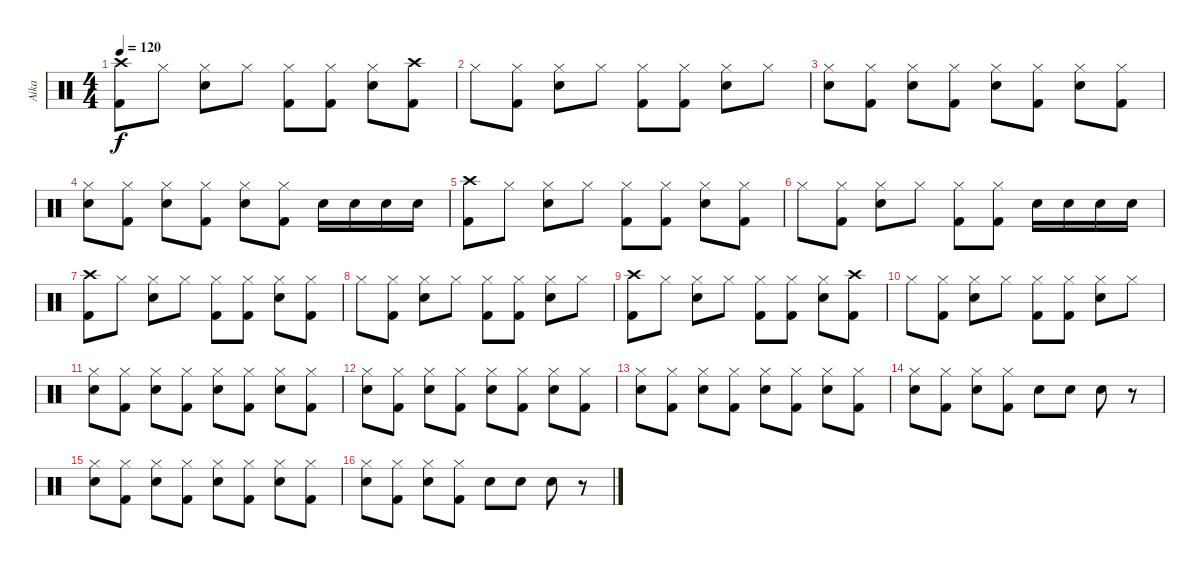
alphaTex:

\track ("Aika" "Aika") {instrument percussion}
\staff {score}
\articulation defaults
\ts (4 4)
\tempo 120
\clef neutral
\ks c
("Crash high (hit)" "Kick (hit) 2").8{dy f} "Hi-Hat (closed)".8 ("Hi-Hat (closed)" "Snare (hit) 2").8 "Hi-Hat (closed)".8 ("Hi-Hat (closed)" "Kick (hit) 2").8 ("Hi-Hat (closed)" "Kick (hit) 2").8 ("Hi-Hat (closed)" "Snare (hit) 2").8 ("Crash high (hit)" "Kick (hit) 2").8 |
"Hi-Hat (closed)".8 ("Hi-Hat (closed)" "Kick (hit) 2").8 ("Hi-Hat (closed)" "Snare (hit) 2").8 "Hi-Hat (closed)".8 ("Hi-Hat (closed)" "Kick (hit) 2").8 ("Hi-Hat (closed)" "Kick (hit) 2").8 ("Hi-Hat (closed)" "Snare (hit) 2").8 "Hi-Hat (closed)".8 |
("Hi-Hat (closed)" "Snare (hit) 2").8 ("Hi-Hat (closed)" "Kick (hit) 2").8 ("Hi-Hat (closed)" "Snare (hit) 2").8 ("Hi-Hat (closed)" "Kick (hit) 2").8 ("Hi-Hat (closed)" "Snare (hit) 2").8 ("Hi-Hat (closed)" "Kick (hit) 2").8 ("Hi-Hat (closed)" "Snare (hit) 2").8 ("Hi-Hat (closed)" "Kick (hit) 2").8 |
("Hi-Hat (closed)" "Snare (hit) 2").8 ("Hi-Hat (closed)" "Kick (hit) 2").8 ("Hi-Hat (closed)" "Snare (hit) 2").8 ("Hi-Hat (closed)" "Kick (hit) 2").8 ("Hi-Hat (closed)" "Snare (hit) 2").8 ("Hi-Hat (closed)" "Kick (hit) 2").8 "Snare (hit) 2".16 "Snare (hit) 2".16 "Snare (hit) 2".16 "Snare (hit) 2".16 |
("Crash high (hit)" "Kick (hit) 2").8 "Hi-Hat (closed)".8 ("Hi-Hat (closed)" "Snare (hit) 2").8 "Hi-Hat (closed)".8 ("Hi-Hat (closed)" "Kick (hit) 2").8 ("Hi-Hat (closed)" "Kick (hit) 2").8 ("Hi-Hat (closed)" "Snare (hit) 2").8 ("Hi-Hat (closed)" "Kick (hit) 2").8 |
"Hi-Hat (closed)".8 ("Hi-Hat (closed)" "Kick (hit) 2").8 ("Hi-Hat (closed)" "Snare (hit) 2").8 "Hi-Hat (closed)".8 ("Hi-Hat (closed)" "Kick (hit) 2").8 ("Hi-Hat (closed)" "Kick (hit) 2").8 "Snare (hit) 2".16 "Snare (hit) 2".16 "Snare (hit) 2".16 "Snare (hit) 2".16 |
("Crash high (hit)" "Kick (hit) 2").8 "Hi-Hat (closed)".8 ("Hi-Hat (closed)" "Snare (hit) 2").8 "Hi-Hat (closed)".8 ("Hi-Hat (closed)" "Kick (hit) 2").8 ("Hi-Hat (closed)" "Kick (hit) 2").8 ("Hi-Hat (closed)" "Snare (hit) 2").8 ("Hi-Hat (closed)" "Kick (hit) 2").8 |
"Hi-Hat (closed)".8 ("Hi-Hat (closed)" "Kick (hit) 2").8 ("Hi-Hat (closed)" "Snare (hit) 2").8 "Hi-Hat (closed)".8 ("Hi-Hat (closed)" "Kick (hit) 2").8 ("Hi-Hat (closed)" "Kick (hit) 2").8 ("Hi-Hat (closed)" "Snare (hit) 2").8 "Hi-Hat (closed)".8 |
("Crash high (hit)" "Kick (hit) 2").8 "Hi-Hat (closed)".8 ("Hi-Hat (closed)" "Snare (hit) 2").8 "Hi-Hat (closed)".8 ("Hi-Hat (closed)" "Kick (hit) 2").8 ("Hi-Hat (closed)" "Kick (hit) 2").8 ("Hi-Hat (closed)" "Snare (hit) 2").8 ("Crash high (hit)" "Kick (hit) 2").8 |
"Hi-Hat (closed)".8 ("Hi-Hat (closed)" "Kick (hit) 2").8 ("Hi-Hat (closed)" "Snare (hit) 2").8 "Hi-Hat (closed)".8 ("Hi-Hat (closed)" "Kick (hit) 2").8 ("Hi-Hat (closed)" "Kick (hit) 2").8 ("Hi-Hat (closed)" "Snare (hit) 2").8 "Hi-Hat (closed)".8 |
("Hi-Hat (closed)" "Snare (hit) 2").8 ("Hi-Hat (closed)" "Kick (hit) 2").8 ("Hi-Hat (closed)" "Snare (hit) 2").8 ("Hi-Hat (closed)" "Kick (hit) 2").8 ("Hi-Hat (closed)" "Snare (hit) 2").8 ("Hi-Hat (closed)" "Kick (hit) 2").8 ("Hi-Hat (closed)" "Snare (hit) 2").8 ("Hi-Hat (closed)" "Kick (hit) 2").8 |
("Hi-Hat (closed)" "Snare (hit) 2").8 ("Hi-Hat (closed)" "Kick (hit) 2").8 ("Hi-Hat (closed)" "Snare (hit) 2").8 ("Hi-Hat (closed)" "Kick (hit) 2").8 ("Hi-Hat (closed)" "Snare (hit) 2").8 ("Hi-Hat (closed)" "Kick (hit) 2").8 ("Hi-Hat (closed)" "Snare (hit) 2").8 ("Hi-Hat (closed)" "Kick (hit) 2").8 |
("Hi-Hat (closed)" "Snare (hit) 2").8 ("Hi-Hat (closed)" "Kick (hit) 2").8 ("Hi-Hat (closed)" "Snare (hit) 2").8 ("Hi-Hat (closed)" "Kick (hit) 2").8 ("Hi-Hat (closed)" "Snare (hit) 2").8 ("Hi-Hat (closed)" "Kick (hit) 2").8 ("Hi-Hat (closed)" "Snare (hit) 2").8 ("Hi-Hat (closed)" "Kick (hit) 2").8 |
("Hi-Hat (closed)" "Snare (hit) 2").8 ("Hi-Hat (closed)" "Kick (hit) 2").8 ("Hi-Hat (closed)" "Snare (hit) 2").8 ("Hi-Hat (closed)" "Kick (hit) 2").8 "Snare (hit) 2".8 "Snare (hit) 2".8 "Snare (hit) 2".8 r.8 |
("Hi-Hat (closed)" "Snare (hit) 2").8 ("Hi-Hat (closed)" "Kick (hit) 2").8 ("Hi-Hat (closed)" "Snare (hit) 2").8 ("Hi-Hat (closed)" "Kick (hit) 2").8 ("Hi-Hat (closed)" "Snare (hit) 2").8 ("Hi-Hat (closed)" "Kick (hit) 2").8 ("Hi-Hat (closed)" "Snare (hit) 2").8 ("Hi-Hat (closed)" "Kick (hit) 2").8 |
("Hi-Hat (closed)" "Snare (hit) 2").8 ("Hi-Hat (closed)" "Kick (hit) 2").8 ("Hi-Hat (closed)" "Snare (hit) 2").8 ("Hi-Hat (closed)" "Kick (hit) 2").8 "Snare (hit) 2".8 "Snare (hit) 2".8 "Snare (hit) 2".8 r.8
